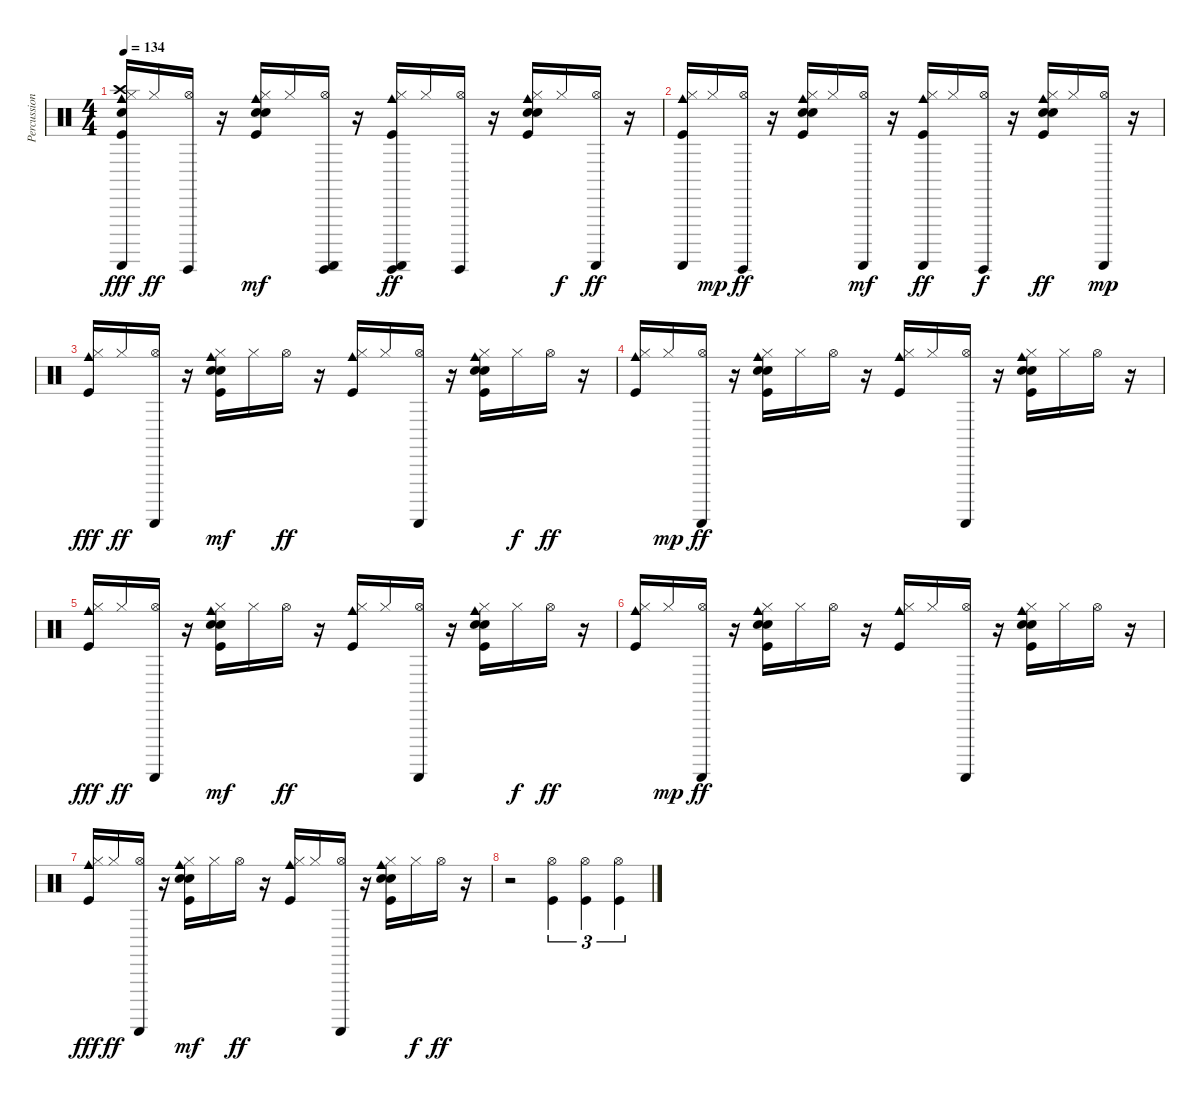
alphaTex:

\track ("Percussion" "Percussion") {instrument percussion}
\staff {score}
\articulation defaults
\ts (4 4)
\tempo 134
\clef neutral
\ks c
("Electric Snare (hit)" "Kick (hit)" "Hi-Hat (closed)" "Crash high (hit)" "Cowbell medium (hit)" "Guiro (scrap-return)").16{dy fff} "Hi-Hat (closed)".16{dy ff} ("Hi-Hat (open)" "Guiro (hit)").16 r.16 ("Kick (hit)" "Hand Clap (hit)" "Electric Snare (hit)" "Hi-Hat (closed)" "Cowbell medium (hit)").16{dy mf} "Hi-Hat (closed)".16 ("Hi-Hat (open)" "Guiro (hit)" "Guiro (scrap-return)").16 r.16 ("Kick (hit)" "Hi-Hat (closed)" "Cowbell medium (hit)" "Guiro (hit)" "Guiro (scrap-return)").16{dy ff} "Hi-Hat (closed)".16 ("Hi-Hat (open)" "Guiro (hit)").16 r.16 ("Kick (hit)" "Hand Clap (hit)" "Electric Snare (hit)" "Hi-Hat (closed)" "Cowbell medium (hit)").16 "Hi-Hat (closed)".16{dy f} ("Hi-Hat (open)" "Guiro (scrap-return)").16{dy ff} r.16 |
("Kick (hit)" "Hi-Hat (closed)" "Cowbell medium (hit)" "Guiro (scrap-return)").16 "Hi-Hat (closed)".16{dy mp} ("Hi-Hat (open)" "Guiro (hit)").16{dy ff} r.16 ("Kick (hit)" "Hand Clap (hit)" "Electric Snare (hit)" "Hi-Hat (closed)" "Cowbell medium (hit)").16 "Hi-Hat (closed)".16 ("Hi-Hat (open)" "Guiro (scrap-return)").16{dy mf} r.16 ("Kick (hit)" "Hi-Hat (closed)" "Cowbell medium (hit)" "Guiro (scrap-return)").16{dy ff} "Hi-Hat (closed)".16 ("Hi-Hat (open)" "Guiro (hit)").16{dy f} r.16 ("Kick (hit)" "Hand Clap (hit)" "Electric Snare (hit)" "Hi-Hat (closed)" "Cowbell medium (hit)").16{dy ff} "Hi-Hat (closed)".16 ("Hi-Hat (open)" "Guiro (scrap-return)").16{dy mp} r.16 |
("Kick (hit)" "Hi-Hat (closed)" "Cowbell medium (hit)").16{dy fff} "Hi-Hat (closed)".16{dy ff} ("Hi-Hat (open)" "Guiro (scrap-return)").16 r.16 ("Kick (hit)" "Hand Clap (hit)" "Electric Snare (hit)" "Hi-Hat (closed)" "Cowbell medium (hit)").16{dy mf} "Hi-Hat (closed)".16 "Hi-Hat (open)".16{dy ff} r.16 ("Kick (hit)" "Hi-Hat (closed)" "Cowbell medium (hit)").16 "Hi-Hat (closed)".16 ("Hi-Hat (open)" "Guiro (scrap-return)").16 r.16 ("Kick (hit)" "Hand Clap (hit)" "Electric Snare (hit)" "Hi-Hat (closed)" "Cowbell medium (hit)").16 "Hi-Hat (closed)".16{dy f} "Hi-Hat (open)".16{dy ff} r.16 |
("Kick (hit)" "Hi-Hat (closed)" "Cowbell medium (hit)").16 "Hi-Hat (closed)".16{dy mp} ("Hi-Hat (open)" "Guiro (scrap-return)").16{dy ff} r.16 ("Kick (hit)" "Hand Clap (hit)" "Electric Snare (hit)" "Hi-Hat (closed)" "Cowbell medium (hit)").16 "Hi-Hat (closed)".16 "Hi-Hat (open)".16 r.16 ("Kick (hit)" "Hi-Hat (closed)" "Cowbell medium (hit)").16 "Hi-Hat (closed)".16 ("Hi-Hat (open)" "Guiro (scrap-return)").16 r.16 ("Kick (hit)" "Hand Clap (hit)" "Electric Snare (hit)" "Hi-Hat (closed)" "Cowbell medium (hit)").16 "Hi-Hat (closed)".16 "Hi-Hat (open)".16 r.16 |
("Kick (hit)" "Hi-Hat (closed)" "Cowbell medium (hit)").16{dy fff} "Hi-Hat (closed)".16{dy ff} ("Hi-Hat (open)" "Guiro (scrap-return)").16 r.16 ("Kick (hit)" "Hand Clap (hit)" "Electric Snare (hit)" "Hi-Hat (closed)" "Cowbell medium (hit)").16{dy mf} "Hi-Hat (closed)".16 "Hi-Hat (open)".16{dy ff} r.16 ("Kick (hit)" "Hi-Hat (closed)" "Cowbell medium (hit)").16 "Hi-Hat (closed)".16 ("Hi-Hat (open)" "Guiro (scrap-return)").16 r.16 ("Kick (hit)" "Hand Clap (hit)" "Electric Snare (hit)" "Hi-Hat (closed)" "Cowbell medium (hit)").16 "Hi-Hat (closed)".16{dy f} "Hi-Hat (open)".16{dy ff} r.16 |
("Kick (hit)" "Hi-Hat (closed)" "Cowbell medium (hit)").16 "Hi-Hat (closed)".16{dy mp} ("Hi-Hat (open)" "Guiro (scrap-return)").16{dy ff} r.16 ("Kick (hit)" "Hand Clap (hit)" "Electric Snare (hit)" "Hi-Hat (closed)" "Cowbell medium (hit)").16 "Hi-Hat (closed)".16 "Hi-Hat (open)".16 r.16 ("Kick (hit)" "Hi-Hat (closed)" "Cowbell medium (hit)").16 "Hi-Hat (closed)".16 ("Hi-Hat (open)" "Guiro (scrap-return)").16 r.16 ("Kick (hit)" "Hand Clap (hit)" "Electric Snare (hit)" "Hi-Hat (closed)" "Cowbell medium (hit)").16 "Hi-Hat (closed)".16 "Hi-Hat (open)".16 r.16 |
("Kick (hit)" "Hi-Hat (closed)" "Cowbell medium (hit)").16{dy fff} "Hi-Hat (closed)".16{dy ff} ("Hi-Hat (open)" "Guiro (scrap-return)").16 r.16 ("Kick (hit)" "Hand Clap (hit)" "Electric Snare (hit)" "Hi-Hat (closed)" "Cowbell medium (hit)").16{dy mf} "Hi-Hat (closed)".16 "Hi-Hat (open)".16{dy ff} r.16 ("Kick (hit)" "Hi-Hat (closed)" "Cowbell medium (hit)").16 "Hi-Hat (closed)".16 ("Hi-Hat (open)" "Guiro (scrap-return)").16 r.16 ("Kick (hit)" "Hand Clap (hit)" "Electric Snare (hit)" "Hi-Hat (closed)" "Cowbell medium (hit)").16 "Hi-Hat (closed)".16{dy f} "Hi-Hat (open)".16{dy ff} r.16 |
r.2 ("Kick (hit)" "Hi-Hat (open)").4{tu (3 2)} ("Kick (hit)" "Hi-Hat (open)").4{tu (3 2)} ("Kick (hit)" "Hi-Hat (open)").4{tu (3 2)}
